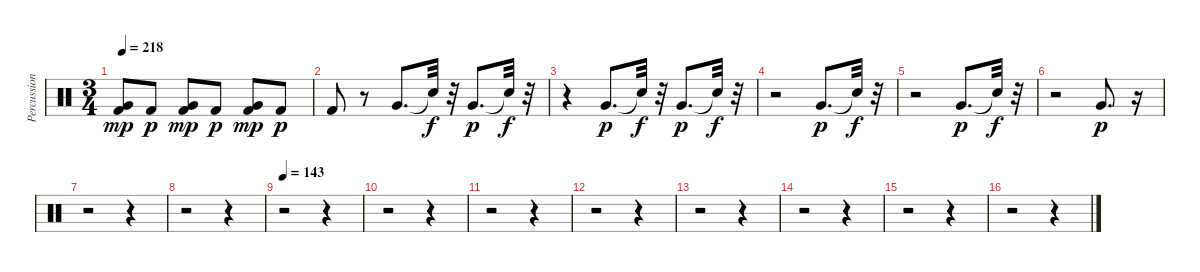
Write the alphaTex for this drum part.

\track ("Percussion." "Percussion") {instrument percussion}
\staff {score}
\articulation defaults
\ts (3 4)
\tempo 218
\clef neutral
\ks c
("Kick (hit) 2" "Very Low Tom (hit)").8{dy mp} "Kick (hit) 2".8{dy p} ("Kick (hit) 2" "Very Low Tom (hit)").8{dy mp} "Kick (hit) 2".8{dy p} ("Kick (hit) 2" "Very Low Tom (hit)").8{dy mp} "Kick (hit) 2".8{dy p} |
"Kick (hit) 2".8 r.8 "Very Low Tom (hit)".8{d} "Snare (hit)"{t}.32{dy f} r.32 "Very Low Tom (hit)".8{d dy p} "Snare (hit)"{t}.32{dy f} r.32 |
r.4 "Very Low Tom (hit)".8{d dy p} "Snare (hit)"{t}.32{dy f} r.32 "Very Low Tom (hit)".8{d dy p} "Snare (hit)"{t}.32{dy f} r.32 |
r.2 "Very Low Tom (hit)".8{d dy p} "Snare (hit)"{t}.32{dy f} r.32 |
r.2 "Very Low Tom (hit)".8{d dy p} "Snare (hit)"{t}.32{dy f} r.32 |
r.2 "Very Low Tom (hit)".8{d dy p} r.16 |
r.2 r.4 |
r.2 r.4 |
\tempo 143
r.2 r.4 |
r.2 r.4 |
r.2 r.4 |
r.2 r.4 |
r.2 r.4 |
r.2 r.4 |
r.2 r.4 |
r.2 r.4
